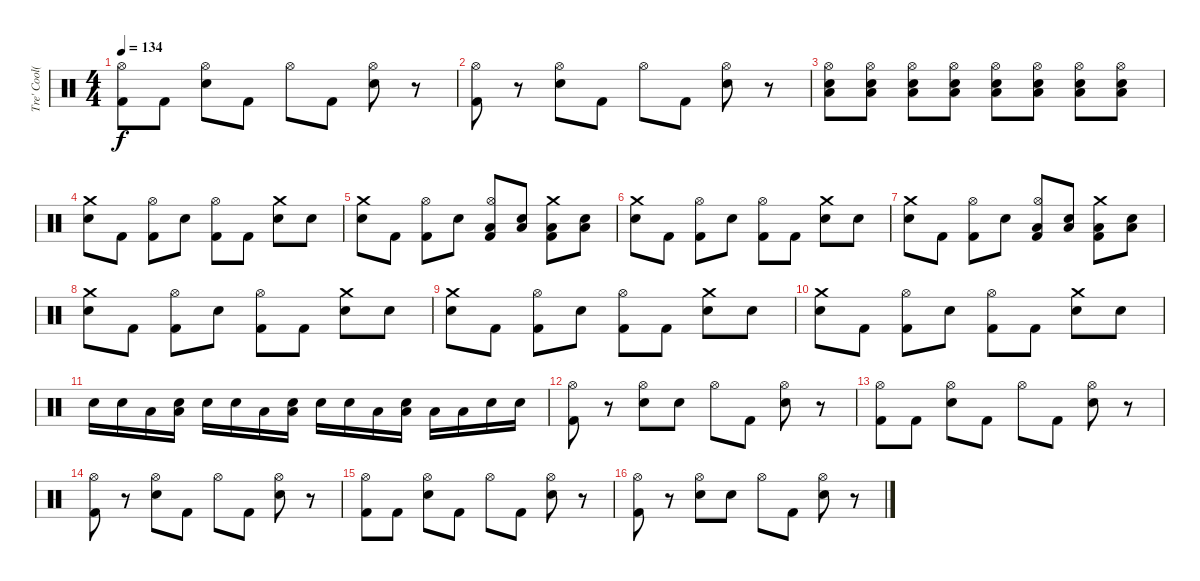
\track ("Tre' Cool(Drums)" "Tre' Cool(") {instrument percussion}
\staff {score}
\articulation defaults
\ts (4 4)
\tempo 134
\clef neutral
\ks c
("Kick (hit) 2" "Hi-Hat (open)").8{dy f} "Kick (hit) 2".8 ("Electric Snare (hit)" "Hi-Hat (open)").8 "Kick (hit) 2".8 "Hi-Hat (open)".8 "Kick (hit) 2".8 ("Electric Snare (hit)" "Hi-Hat (open)").8 r.8 |
("Kick (hit) 2" "Hi-Hat (open)").8 r.8 ("Electric Snare (hit)" "Hi-Hat (open)").8 "Kick (hit) 2".8 "Hi-Hat (open)".8 "Kick (hit) 2".8 ("Electric Snare (hit)" "Hi-Hat (open)").8 r.8 |
("Low Floor Tom (hit)" "Electric Snare (hit)" "Hi-Hat (open)").8{volume 8} ("Low Floor Tom (hit)" "Electric Snare (hit)" "Hi-Hat (open)").8 ("Low Floor Tom (hit)" "Electric Snare (hit)" "Hi-Hat (open)").8{volume 10} ("Low Floor Tom (hit)" "Electric Snare (hit)" "Hi-Hat (open)").8 ("Low Floor Tom (hit)" "Electric Snare (hit)" "Hi-Hat (open)").8{volume 13} ("Low Floor Tom (hit)" "Electric Snare (hit)" "Hi-Hat (open)").8 ("Low Floor Tom (hit)" "Electric Snare (hit)" "Hi-Hat (open)").8{volume 16} ("Low Floor Tom (hit)" "Electric Snare (hit)" "Hi-Hat (open)").8 |
("Electric Snare (hit)" "Crash medium (hit)").8 "Kick (hit) 2".8 ("Kick (hit) 2" "Hi-Hat (open)").8 "Electric Snare (hit)".8 ("Kick (hit) 2" "Hi-Hat (open)").8 "Kick (hit) 2".8 ("Electric Snare (hit)" "Crash medium (hit)").8 "Electric Snare (hit)".8 |
("Electric Snare (hit)" "Crash medium (hit)").8 "Kick (hit) 2".8 ("Kick (hit) 2" "Hi-Hat (open)").8 "Electric Snare (hit)".8 ("Kick (hit) 2" "Low Floor Tom (hit)" "Hi-Hat (open)").8 ("Low Floor Tom (hit)" "Electric Snare (hit)").8 ("Kick (hit) 2" "Low Floor Tom (hit)" "Crash medium (hit)").8 ("Low Floor Tom (hit)" "Electric Snare (hit)").8 |
("Electric Snare (hit)" "Crash medium (hit)").8 "Kick (hit) 2".8 ("Kick (hit) 2" "Hi-Hat (open)").8 "Electric Snare (hit)".8 ("Kick (hit) 2" "Hi-Hat (open)").8 "Kick (hit) 2".8 ("Electric Snare (hit)" "Crash medium (hit)").8 "Electric Snare (hit)".8 |
("Electric Snare (hit)" "Crash medium (hit)").8 "Kick (hit) 2".8 ("Kick (hit) 2" "Hi-Hat (open)").8 "Electric Snare (hit)".8 ("Kick (hit) 2" "Low Floor Tom (hit)" "Hi-Hat (open)").8 ("Low Floor Tom (hit)" "Electric Snare (hit)").8 ("Kick (hit) 2" "Low Floor Tom (hit)" "Crash medium (hit)").8 ("Low Floor Tom (hit)" "Electric Snare (hit)").8 |
("Electric Snare (hit)" "Crash medium (hit)").8 "Kick (hit) 2".8 ("Kick (hit) 2" "Hi-Hat (open)").8 "Electric Snare (hit)".8 ("Kick (hit) 2" "Hi-Hat (open)").8 "Kick (hit) 2".8 ("Electric Snare (hit)" "Crash medium (hit)").8 "Electric Snare (hit)".8 |
("Electric Snare (hit)" "Crash medium (hit)").8 "Kick (hit) 2".8 ("Kick (hit) 2" "Hi-Hat (open)").8 "Electric Snare (hit)".8 ("Kick (hit) 2" "Hi-Hat (open)").8 "Kick (hit) 2".8 ("Electric Snare (hit)" "Crash medium (hit)").8 "Electric Snare (hit)".8 |
("Electric Snare (hit)" "Crash medium (hit)").8 "Kick (hit) 2".8 ("Kick (hit) 2" "Hi-Hat (open)").8 "Electric Snare (hit)".8 ("Kick (hit) 2" "Hi-Hat (open)").8 "Kick (hit) 2".8 ("Electric Snare (hit)" "Crash medium (hit)").8 "Electric Snare (hit)".8 |
"Electric Snare (hit)".16 "Electric Snare (hit)".16 "Low Floor Tom (hit)".16 ("Low Floor Tom (hit)" "Electric Snare (hit)").16 "Electric Snare (hit)".16 "Electric Snare (hit)".16 "Low Floor Tom (hit)".16 ("Low Floor Tom (hit)" "Electric Snare (hit)").16 "Electric Snare (hit)".16 "Electric Snare (hit)".16 "Low Floor Tom (hit)".16 ("Low Floor Tom (hit)" "Electric Snare (hit)").16 "Low Floor Tom (hit)".16 "Low Floor Tom (hit)".16 "Electric Snare (hit)".16 "Electric Snare (hit)".16 |
("Kick (hit) 2" "Hi-Hat (open)").8 r.8 ("Electric Snare (hit)" "Hi-Hat (open)").8 "Electric Snare (hit)".8 "Hi-Hat (open)".8 "Kick (hit) 2".8 ("Electric Snare (hit)" "Hi-Hat (open)").8 r.8 |
("Kick (hit) 2" "Hi-Hat (open)").8 "Kick (hit) 2".8 ("Electric Snare (hit)" "Hi-Hat (open)").8 "Kick (hit) 2".8 "Hi-Hat (open)".8 "Kick (hit) 2".8 ("Electric Snare (hit)" "Hi-Hat (open)").8 r.8 |
("Kick (hit) 2" "Hi-Hat (open)").8 r.8 ("Electric Snare (hit)" "Hi-Hat (open)").8 "Kick (hit) 2".8 "Hi-Hat (open)".8 "Kick (hit) 2".8 ("Electric Snare (hit)" "Hi-Hat (open)").8 r.8 |
("Kick (hit) 2" "Hi-Hat (open)").8 "Kick (hit) 2".8 ("Electric Snare (hit)" "Hi-Hat (open)").8 "Kick (hit) 2".8 "Hi-Hat (open)".8 "Kick (hit) 2".8 ("Electric Snare (hit)" "Hi-Hat (open)").8 r.8 |
("Kick (hit) 2" "Hi-Hat (open)").8 r.8 ("Electric Snare (hit)" "Hi-Hat (open)").8 "Electric Snare (hit)".8 "Hi-Hat (open)".8 "Kick (hit) 2".8 ("Electric Snare (hit)" "Hi-Hat (open)").8 r.8
